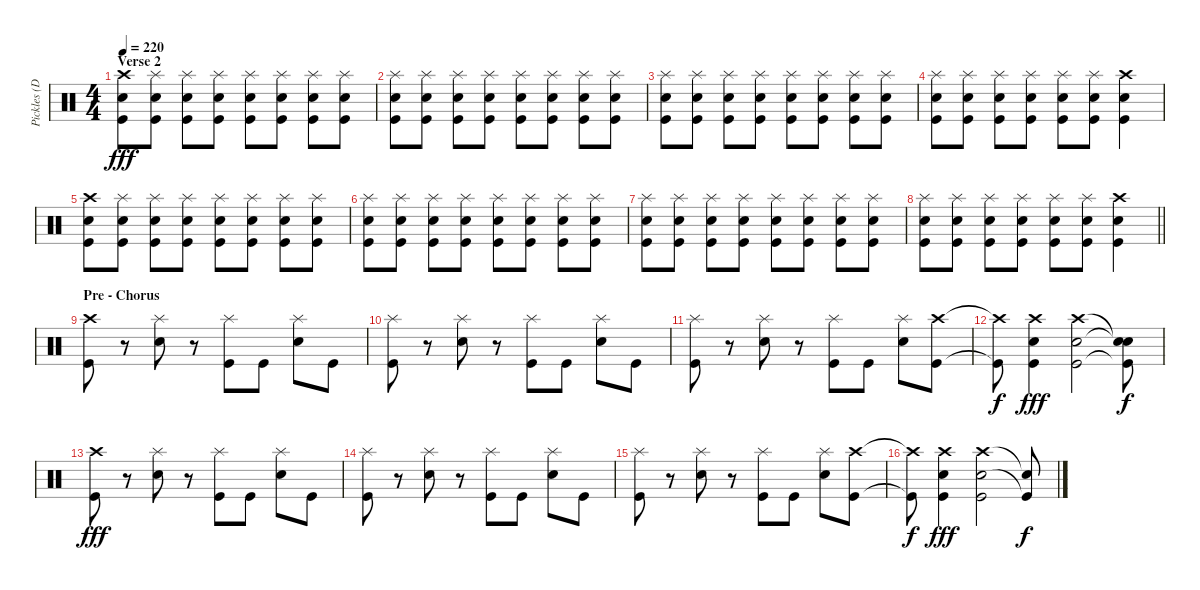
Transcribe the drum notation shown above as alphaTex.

\track ("Pickles (Drums)" "Pickles (D") {instrument percussion}
\staff {score}
\articulation defaults
\ts (4 4)
\section ("" "Verse 2")
\tempo 220
\clef neutral
\ks c
("Crash high (hit)" "Electric Snare (hit)" "Kick (hit)").8{dy fff} ("Splash (hit)" "Electric Snare (hit)" "Kick (hit)").8 ("Splash (hit)" "Electric Snare (hit)" "Kick (hit)").8 ("Splash (hit)" "Electric Snare (hit)" "Kick (hit)").8 ("Splash (hit)" "Electric Snare (hit)" "Kick (hit)").8 ("Splash (hit)" "Electric Snare (hit)" "Kick (hit)").8 ("Splash (hit)" "Electric Snare (hit)" "Kick (hit)").8 ("Splash (hit)" "Electric Snare (hit)" "Kick (hit)").8 |
("Splash (hit)" "Electric Snare (hit)" "Kick (hit)").8 ("Splash (hit)" "Electric Snare (hit)" "Kick (hit)").8 ("Splash (hit)" "Electric Snare (hit)" "Kick (hit)").8 ("Splash (hit)" "Electric Snare (hit)" "Kick (hit)").8 ("Splash (hit)" "Electric Snare (hit)" "Kick (hit)").8 ("Splash (hit)" "Electric Snare (hit)" "Kick (hit)").8 ("Splash (hit)" "Electric Snare (hit)" "Kick (hit)").8 ("Splash (hit)" "Electric Snare (hit)" "Kick (hit)").8 |
("Splash (hit)" "Electric Snare (hit)" "Kick (hit)").8 ("Splash (hit)" "Electric Snare (hit)" "Kick (hit)").8 ("Splash (hit)" "Electric Snare (hit)" "Kick (hit)").8 ("Splash (hit)" "Electric Snare (hit)" "Kick (hit)").8 ("Splash (hit)" "Electric Snare (hit)" "Kick (hit)").8 ("Splash (hit)" "Electric Snare (hit)" "Kick (hit)").8 ("Splash (hit)" "Electric Snare (hit)" "Kick (hit)").8 ("Splash (hit)" "Electric Snare (hit)" "Kick (hit)").8 |
("Splash (hit)" "Electric Snare (hit)" "Kick (hit)").8 ("Splash (hit)" "Electric Snare (hit)" "Kick (hit)").8 ("Splash (hit)" "Electric Snare (hit)" "Kick (hit)").8 ("Splash (hit)" "Electric Snare (hit)" "Kick (hit)").8 ("Splash (hit)" "Electric Snare (hit)" "Kick (hit)").8 ("Splash (hit)" "Electric Snare (hit)" "Kick (hit)").8 ("Crash high (hit)" "Electric Snare (hit)" "Kick (hit)").4 |
("Crash high (hit)" "Electric Snare (hit)" "Kick (hit)").8 ("Splash (hit)" "Electric Snare (hit)" "Kick (hit)").8 ("Splash (hit)" "Electric Snare (hit)" "Kick (hit)").8 ("Splash (hit)" "Electric Snare (hit)" "Kick (hit)").8 ("Splash (hit)" "Electric Snare (hit)" "Kick (hit)").8 ("Splash (hit)" "Electric Snare (hit)" "Kick (hit)").8 ("Splash (hit)" "Electric Snare (hit)" "Kick (hit)").8 ("Splash (hit)" "Electric Snare (hit)" "Kick (hit)").8 |
("Splash (hit)" "Electric Snare (hit)" "Kick (hit)").8 ("Splash (hit)" "Electric Snare (hit)" "Kick (hit)").8 ("Splash (hit)" "Electric Snare (hit)" "Kick (hit)").8 ("Splash (hit)" "Electric Snare (hit)" "Kick (hit)").8 ("Splash (hit)" "Electric Snare (hit)" "Kick (hit)").8 ("Splash (hit)" "Electric Snare (hit)" "Kick (hit)").8 ("Splash (hit)" "Electric Snare (hit)" "Kick (hit)").8 ("Splash (hit)" "Electric Snare (hit)" "Kick (hit)").8 |
("Splash (hit)" "Electric Snare (hit)" "Kick (hit)").8 ("Splash (hit)" "Electric Snare (hit)" "Kick (hit)").8 ("Splash (hit)" "Electric Snare (hit)" "Kick (hit)").8 ("Splash (hit)" "Electric Snare (hit)" "Kick (hit)").8 ("Splash (hit)" "Electric Snare (hit)" "Kick (hit)").8 ("Splash (hit)" "Electric Snare (hit)" "Kick (hit)").8 ("Splash (hit)" "Electric Snare (hit)" "Kick (hit)").8 ("Splash (hit)" "Electric Snare (hit)" "Kick (hit)").8 |
\barLineRight lightlight
("Splash (hit)" "Electric Snare (hit)" "Kick (hit)").8 ("Splash (hit)" "Electric Snare (hit)" "Kick (hit)").8 ("Splash (hit)" "Electric Snare (hit)" "Kick (hit)").8 ("Splash (hit)" "Electric Snare (hit)" "Kick (hit)").8 ("Splash (hit)" "Electric Snare (hit)" "Kick (hit)").8 ("Splash (hit)" "Electric Snare (hit)" "Kick (hit)").8 ("Crash high (hit)" "Electric Snare (hit)" "Kick (hit)").4 |
\section ("" "Pre - Chorus")
("Crash high (hit)" "Kick (hit)").8 r.8 ("Splash (hit)" "Electric Snare (hit)").8 r.8 ("Splash (hit)" "Kick (hit)").8 "Kick (hit)".8 ("Splash (hit)" "Electric Snare (hit)").8 "Kick (hit)".8 |
("Splash (hit)" "Kick (hit)").8 r.8 ("Splash (hit)" "Electric Snare (hit)").8 r.8 ("Splash (hit)" "Kick (hit)").8 "Kick (hit)".8 ("Splash (hit)" "Electric Snare (hit)").8 "Kick (hit)".8 |
("Splash (hit)" "Kick (hit)").8 r.8 ("Splash (hit)" "Electric Snare (hit)").8 r.8 ("Splash (hit)" "Kick (hit)").8 "Kick (hit)".8 ("Splash (hit)" "Electric Snare (hit)").8 ("Crash high (hit)" "Kick (hit)").8 |
("Crash high (hit)"{t} "Kick (hit)"{t}).8{dy f} ("Crash high (hit)" "Electric Snare (hit)" "Kick (hit)").4{dy fff} ("Crash high (hit)" "Electric Snare (hit)" "Kick (hit)").2 ("Snare (hit)"{t} "Electric Snare (hit)"{t} "Kick (hit)"{t}).8{dy f} |
("Crash high (hit)" "Kick (hit)").8{dy fff} r.8 ("Splash (hit)" "Electric Snare (hit)").8 r.8 ("Splash (hit)" "Kick (hit)").8 "Kick (hit)".8 ("Splash (hit)" "Electric Snare (hit)").8 "Kick (hit)".8 |
("Splash (hit)" "Kick (hit)").8 r.8 ("Splash (hit)" "Electric Snare (hit)").8 r.8 ("Splash (hit)" "Kick (hit)").8 "Kick (hit)".8 ("Splash (hit)" "Electric Snare (hit)").8 "Kick (hit)".8 |
("Splash (hit)" "Kick (hit)").8 r.8 ("Splash (hit)" "Electric Snare (hit)").8 r.8 ("Splash (hit)" "Kick (hit)").8 "Kick (hit)".8 ("Splash (hit)" "Electric Snare (hit)").8 ("Crash high (hit)" "Kick (hit)").8 |
("Crash high (hit)"{t} "Kick (hit)"{t}).8{dy f} ("Crash high (hit)" "Electric Snare (hit)" "Kick (hit)").4{dy fff} ("Crash high (hit)" "Electric Snare (hit)" "Kick (hit)").2 ("Snare (hit)"{t} "Kick (hit)"{t}).8{dy f}
